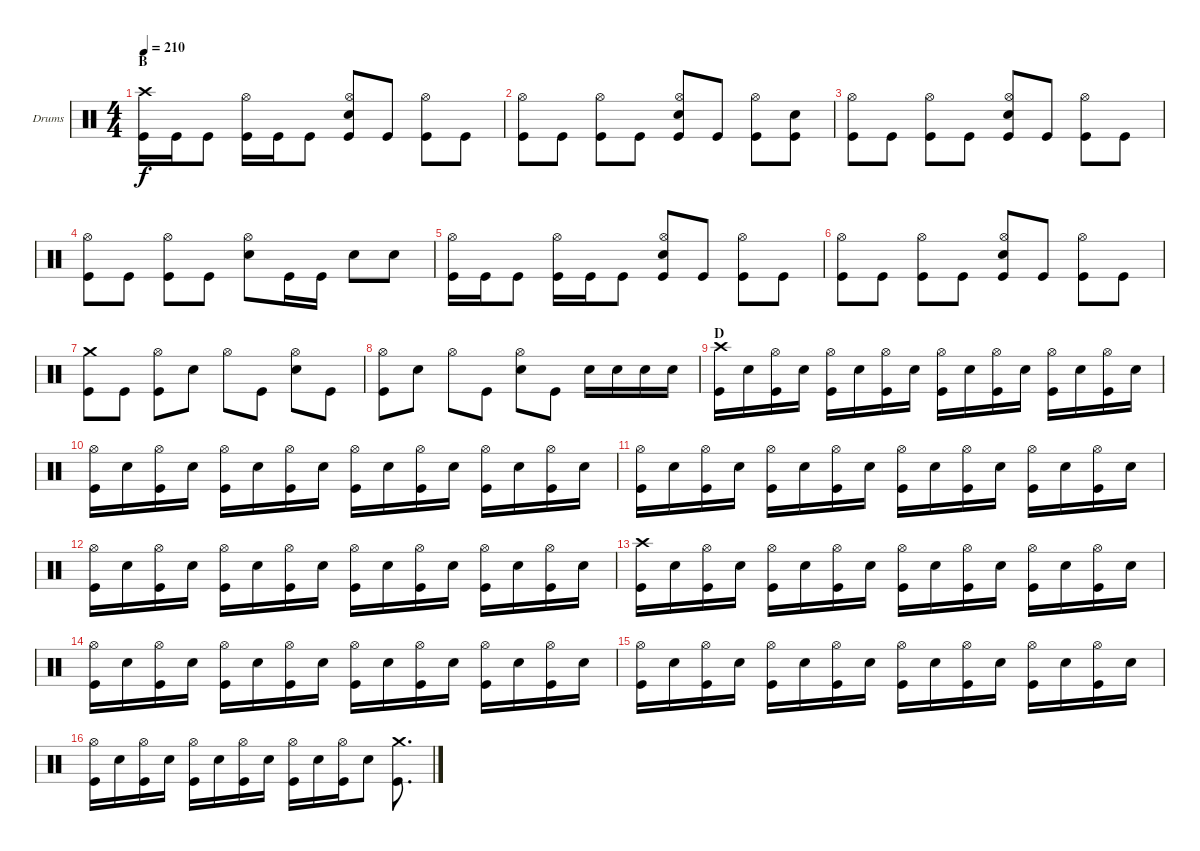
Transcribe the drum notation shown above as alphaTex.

\bracketExtendMode groupsimilarinstruments
\firstSystemTrackNameOrientation horizontal
\otherSystemsTrackNameOrientation horizontal
\track ("Drumkit" "Drums") {instrument percussion}
\staff {score}
\articulation defaults
\ts (4 4)
\section ("" "B")
\tempo 210
\clef neutral
\ks c
("Crash high (hit)" "Kick (hit)").16{dy f} "Kick (hit)".16 "Kick (hit)".8 ("Hi-Hat (open)" "Kick (hit)").16 "Kick (hit)".16 "Kick (hit)".8 ("Hi-Hat (open)" "Snare (hit) 2" "Kick (hit)").8 "Kick (hit)".8 ("Hi-Hat (open)" "Kick (hit)").8 "Kick (hit)".8 |
("Hi-Hat (open)" "Kick (hit)").8 "Kick (hit)".8 ("Hi-Hat (open)" "Kick (hit)").8 "Kick (hit)".8 ("Hi-Hat (open)" "Snare (hit) 2" "Kick (hit)").8 "Kick (hit)".8 ("Hi-Hat (open)" "Kick (hit)").8 ("Snare (hit) 2" "Kick (hit)").8 |
("Hi-Hat (open)" "Kick (hit)").8 "Kick (hit)".8 ("Hi-Hat (open)" "Kick (hit)").8 "Kick (hit)".8 ("Hi-Hat (open)" "Snare (hit) 2" "Kick (hit)").8 "Kick (hit)".8 ("Hi-Hat (open)" "Kick (hit)").8 "Kick (hit)".8 |
("Hi-Hat (open)" "Kick (hit)").8 "Kick (hit)".8 ("Hi-Hat (open)" "Kick (hit)").8 "Kick (hit)".8 ("Hi-Hat (open)" "Snare (hit) 2").8 "Kick (hit)".16 "Kick (hit)".16 "Snare (hit) 2".8 "Snare (hit) 2".8 |
("Hi-Hat (open)" "Kick (hit)").16 "Kick (hit)".16 "Kick (hit)".8 ("Hi-Hat (open)" "Kick (hit)").16 "Kick (hit)".16 "Kick (hit)".8 ("Hi-Hat (open)" "Snare (hit) 2" "Kick (hit)").8 "Kick (hit)".8 ("Hi-Hat (open)" "Kick (hit)").8 "Kick (hit)".8 |
("Hi-Hat (open)" "Kick (hit)").8 "Kick (hit)".8 ("Hi-Hat (open)" "Kick (hit)").8 "Kick (hit)".8 ("Hi-Hat (open)" "Snare (hit) 2" "Kick (hit)").8 "Kick (hit)".8 ("Hi-Hat (open)" "Kick (hit)").8 "Kick (hit)".8 |
("Crash medium (hit)" "Kick (hit)").8 "Kick (hit)".8 ("Hi-Hat (open)" "Kick (hit)").8 "Snare (hit) 2".8 "Hi-Hat (open)".8 "Kick (hit)".8 ("Hi-Hat (open)" "Snare (hit) 2").8 "Kick (hit)".8 |
("Hi-Hat (open)" "Kick (hit)").8 "Snare (hit) 2".8 "Hi-Hat (open)".8 "Kick (hit)".8 ("Hi-Hat (open)" "Snare (hit) 2").8 "Kick (hit)".8 "Snare (hit) 2".16 "Snare (hit) 2".16 "Snare (hit) 2".16 "Snare (hit) 2".16 |
\section ("" "D")
("Kick (hit)" "Crash high (hit)").16 "Snare (hit) 2".16 ("Kick (hit)" "Hi-Hat (open)").16 "Snare (hit) 2".16 ("Kick (hit)" "Hi-Hat (open)").16 "Snare (hit) 2".16 ("Kick (hit)" "Hi-Hat (open)").16 "Snare (hit) 2".16 ("Kick (hit)" "Hi-Hat (open)").16 "Snare (hit) 2".16 ("Kick (hit)" "Hi-Hat (open)").16 "Snare (hit) 2".16 ("Kick (hit)" "Hi-Hat (open)").16 "Snare (hit) 2".16 ("Kick (hit)" "Hi-Hat (open)").16 "Snare (hit) 2".16 |
("Kick (hit)" "Hi-Hat (open)").16 "Snare (hit) 2".16 ("Kick (hit)" "Hi-Hat (open)").16 "Snare (hit) 2".16 ("Kick (hit)" "Hi-Hat (open)").16 "Snare (hit) 2".16 ("Kick (hit)" "Hi-Hat (open)").16 "Snare (hit) 2".16 ("Kick (hit)" "Hi-Hat (open)").16 "Snare (hit) 2".16 ("Kick (hit)" "Hi-Hat (open)").16 "Snare (hit) 2".16 ("Kick (hit)" "Hi-Hat (open)").16 "Snare (hit) 2".16 ("Kick (hit)" "Hi-Hat (open)").16 "Snare (hit) 2".16 |
("Kick (hit)" "Hi-Hat (open)").16 "Snare (hit) 2".16 ("Kick (hit)" "Hi-Hat (open)").16 "Snare (hit) 2".16 ("Kick (hit)" "Hi-Hat (open)").16 "Snare (hit) 2".16 ("Kick (hit)" "Hi-Hat (open)").16 "Snare (hit) 2".16 ("Kick (hit)" "Hi-Hat (open)").16 "Snare (hit) 2".16 ("Kick (hit)" "Hi-Hat (open)").16 "Snare (hit) 2".16 ("Kick (hit)" "Hi-Hat (open)").16 "Snare (hit) 2".16 ("Kick (hit)" "Hi-Hat (open)").16 "Snare (hit) 2".16 |
("Kick (hit)" "Hi-Hat (open)").16 "Snare (hit) 2".16 ("Kick (hit)" "Hi-Hat (open)").16 "Snare (hit) 2".16 ("Kick (hit)" "Hi-Hat (open)").16 "Snare (hit) 2".16 ("Kick (hit)" "Hi-Hat (open)").16 "Snare (hit) 2".16 ("Kick (hit)" "Hi-Hat (open)").16 "Snare (hit) 2".16 ("Kick (hit)" "Hi-Hat (open)").16 "Snare (hit) 2".16 ("Kick (hit)" "Hi-Hat (open)").16 "Snare (hit) 2".16 ("Kick (hit)" "Hi-Hat (open)").16 "Snare (hit) 2".16 |
("Kick (hit)" "Crash high (hit)").16 "Snare (hit) 2".16 ("Kick (hit)" "Hi-Hat (open)").16 "Snare (hit) 2".16 ("Kick (hit)" "Hi-Hat (open)").16 "Snare (hit) 2".16 ("Kick (hit)" "Hi-Hat (open)").16 "Snare (hit) 2".16 ("Kick (hit)" "Hi-Hat (open)").16 "Snare (hit) 2".16 ("Kick (hit)" "Hi-Hat (open)").16 "Snare (hit) 2".16 ("Kick (hit)" "Hi-Hat (open)").16 "Snare (hit) 2".16 ("Kick (hit)" "Hi-Hat (open)").16 "Snare (hit) 2".16 |
("Kick (hit)" "Hi-Hat (open)").16 "Snare (hit) 2".16 ("Kick (hit)" "Hi-Hat (open)").16 "Snare (hit) 2".16 ("Kick (hit)" "Hi-Hat (open)").16 "Snare (hit) 2".16 ("Kick (hit)" "Hi-Hat (open)").16 "Snare (hit) 2".16 ("Kick (hit)" "Hi-Hat (open)").16 "Snare (hit) 2".16 ("Kick (hit)" "Hi-Hat (open)").16 "Snare (hit) 2".16 ("Kick (hit)" "Hi-Hat (open)").16 "Snare (hit) 2".16 ("Kick (hit)" "Hi-Hat (open)").16 "Snare (hit) 2".16 |
("Kick (hit)" "Hi-Hat (open)").16 "Snare (hit) 2".16 ("Kick (hit)" "Hi-Hat (open)").16 "Snare (hit) 2".16 ("Kick (hit)" "Hi-Hat (open)").16 "Snare (hit) 2".16 ("Kick (hit)" "Hi-Hat (open)").16 "Snare (hit) 2".16 ("Kick (hit)" "Hi-Hat (open)").16 "Snare (hit) 2".16 ("Kick (hit)" "Hi-Hat (open)").16 "Snare (hit) 2".16 ("Kick (hit)" "Hi-Hat (open)").16 "Snare (hit) 2".16 ("Kick (hit)" "Hi-Hat (open)").16 "Snare (hit) 2".16 |
("Kick (hit)" "Hi-Hat (open)").16 "Snare (hit) 2".16 ("Kick (hit)" "Hi-Hat (open)").16 "Snare (hit) 2".16 ("Kick (hit)" "Hi-Hat (open)").16 "Snare (hit) 2".16 ("Kick (hit)" "Hi-Hat (open)").16 "Snare (hit) 2".16 ("Kick (hit)" "Hi-Hat (open)").16 "Snare (hit) 2".16 ("Kick (hit)" "Hi-Hat (open)").16 "Snare (hit) 2".8 ("Crash medium (hit)" "Kick (hit)").8{d}
